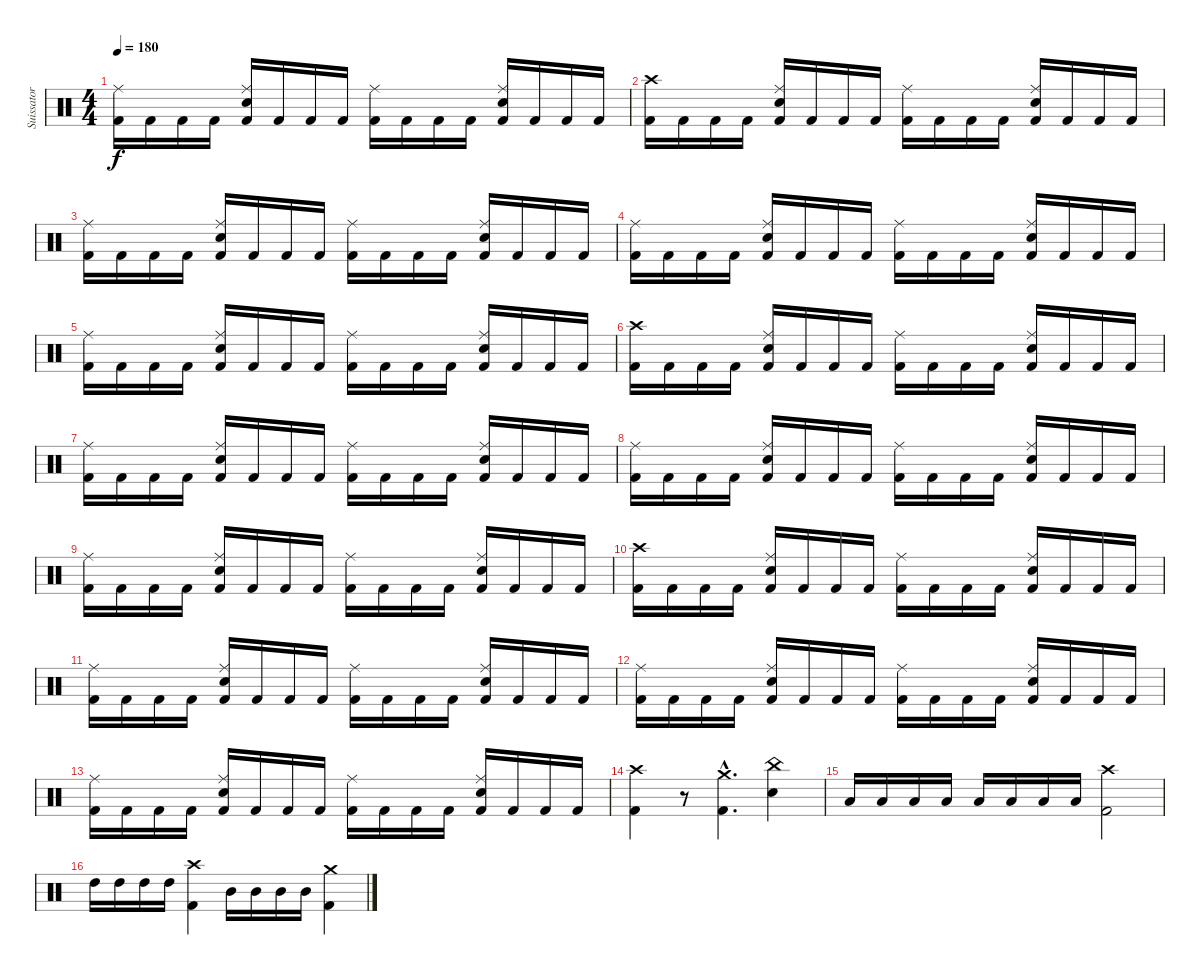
\track ("Suissator" "Suissator") {instrument percussion}
\staff {score}
\articulation defaults
\ts (4 4)
\tempo 180
\clef neutral
\ks c
("Kick (hit) 2" "Ride (middle)").16{dy f} "Kick (hit) 2".16 "Kick (hit) 2".16 "Kick (hit) 2".16 ("Kick (hit) 2" "Electric Snare (hit)" "Ride (middle)").16 "Kick (hit) 2".16 "Kick (hit) 2".16 "Kick (hit) 2".16 ("Kick (hit) 2" "Ride (middle)").16 "Kick (hit) 2".16 "Kick (hit) 2".16 "Kick (hit) 2".16 ("Kick (hit) 2" "Electric Snare (hit)" "Ride (middle)").16 "Kick (hit) 2".16 "Kick (hit) 2".16 "Kick (hit) 2".16 |
("Kick (hit) 2" "Crash high (hit)").16 "Kick (hit) 2".16 "Kick (hit) 2".16 "Kick (hit) 2".16 ("Kick (hit) 2" "Electric Snare (hit)" "Ride (middle)").16 "Kick (hit) 2".16 "Kick (hit) 2".16 "Kick (hit) 2".16 ("Kick (hit) 2" "Ride (middle)").16 "Kick (hit) 2".16 "Kick (hit) 2".16 "Kick (hit) 2".16 ("Kick (hit) 2" "Electric Snare (hit)" "Ride (middle)").16 "Kick (hit) 2".16 "Kick (hit) 2".16 "Kick (hit) 2".16 |
("Kick (hit) 2" "Ride (middle)").16 "Kick (hit) 2".16 "Kick (hit) 2".16 "Kick (hit) 2".16 ("Kick (hit) 2" "Electric Snare (hit)" "Ride (middle)").16 "Kick (hit) 2".16 "Kick (hit) 2".16 "Kick (hit) 2".16 ("Kick (hit) 2" "Ride (middle)").16 "Kick (hit) 2".16 "Kick (hit) 2".16 "Kick (hit) 2".16 ("Kick (hit) 2" "Electric Snare (hit)" "Ride (middle)").16 "Kick (hit) 2".16 "Kick (hit) 2".16 "Kick (hit) 2".16 |
("Kick (hit) 2" "Ride (middle)").16 "Kick (hit) 2".16 "Kick (hit) 2".16 "Kick (hit) 2".16 ("Kick (hit) 2" "Electric Snare (hit)" "Ride (middle)").16 "Kick (hit) 2".16 "Kick (hit) 2".16 "Kick (hit) 2".16 ("Kick (hit) 2" "Ride (middle)").16 "Kick (hit) 2".16 "Kick (hit) 2".16 "Kick (hit) 2".16 ("Kick (hit) 2" "Electric Snare (hit)" "Ride (middle)").16 "Kick (hit) 2".16 "Kick (hit) 2".16 "Kick (hit) 2".16 |
("Kick (hit) 2" "Ride (middle)").16 "Kick (hit) 2".16 "Kick (hit) 2".16 "Kick (hit) 2".16 ("Kick (hit) 2" "Electric Snare (hit)" "Ride (middle)").16 "Kick (hit) 2".16 "Kick (hit) 2".16 "Kick (hit) 2".16 ("Kick (hit) 2" "Ride (middle)").16 "Kick (hit) 2".16 "Kick (hit) 2".16 "Kick (hit) 2".16 ("Kick (hit) 2" "Electric Snare (hit)" "Ride (middle)").16 "Kick (hit) 2".16 "Kick (hit) 2".16 "Kick (hit) 2".16 |
("Kick (hit) 2" "Crash high (hit)").16 "Kick (hit) 2".16 "Kick (hit) 2".16 "Kick (hit) 2".16 ("Kick (hit) 2" "Electric Snare (hit)" "Ride (middle)").16 "Kick (hit) 2".16 "Kick (hit) 2".16 "Kick (hit) 2".16 ("Kick (hit) 2" "Ride (middle)").16 "Kick (hit) 2".16 "Kick (hit) 2".16 "Kick (hit) 2".16 ("Kick (hit) 2" "Electric Snare (hit)" "Ride (middle)").16 "Kick (hit) 2".16 "Kick (hit) 2".16 "Kick (hit) 2".16 |
("Kick (hit) 2" "Ride (middle)").16 "Kick (hit) 2".16 "Kick (hit) 2".16 "Kick (hit) 2".16 ("Kick (hit) 2" "Electric Snare (hit)" "Ride (middle)").16 "Kick (hit) 2".16 "Kick (hit) 2".16 "Kick (hit) 2".16 ("Kick (hit) 2" "Ride (middle)").16 "Kick (hit) 2".16 "Kick (hit) 2".16 "Kick (hit) 2".16 ("Kick (hit) 2" "Electric Snare (hit)" "Ride (middle)").16 "Kick (hit) 2".16 "Kick (hit) 2".16 "Kick (hit) 2".16 |
("Kick (hit) 2" "Ride (middle)").16 "Kick (hit) 2".16 "Kick (hit) 2".16 "Kick (hit) 2".16 ("Kick (hit) 2" "Electric Snare (hit)" "Ride (middle)").16 "Kick (hit) 2".16 "Kick (hit) 2".16 "Kick (hit) 2".16 ("Kick (hit) 2" "Ride (middle)").16 "Kick (hit) 2".16 "Kick (hit) 2".16 "Kick (hit) 2".16 ("Kick (hit) 2" "Electric Snare (hit)" "Ride (middle)").16 "Kick (hit) 2".16 "Kick (hit) 2".16 "Kick (hit) 2".16 |
("Kick (hit) 2" "Ride (middle)").16 "Kick (hit) 2".16 "Kick (hit) 2".16 "Kick (hit) 2".16 ("Kick (hit) 2" "Electric Snare (hit)" "Ride (middle)").16 "Kick (hit) 2".16 "Kick (hit) 2".16 "Kick (hit) 2".16 ("Kick (hit) 2" "Ride (middle)").16 "Kick (hit) 2".16 "Kick (hit) 2".16 "Kick (hit) 2".16 ("Kick (hit) 2" "Electric Snare (hit)" "Ride (middle)").16 "Kick (hit) 2".16 "Kick (hit) 2".16 "Kick (hit) 2".16 |
("Kick (hit) 2" "Crash high (hit)").16 "Kick (hit) 2".16 "Kick (hit) 2".16 "Kick (hit) 2".16 ("Kick (hit) 2" "Electric Snare (hit)" "Ride (middle)").16 "Kick (hit) 2".16 "Kick (hit) 2".16 "Kick (hit) 2".16 ("Kick (hit) 2" "Ride (middle)").16 "Kick (hit) 2".16 "Kick (hit) 2".16 "Kick (hit) 2".16 ("Kick (hit) 2" "Electric Snare (hit)" "Ride (middle)").16 "Kick (hit) 2".16 "Kick (hit) 2".16 "Kick (hit) 2".16 |
("Kick (hit) 2" "Ride (middle)").16 "Kick (hit) 2".16 "Kick (hit) 2".16 "Kick (hit) 2".16 ("Kick (hit) 2" "Electric Snare (hit)" "Ride (middle)").16 "Kick (hit) 2".16 "Kick (hit) 2".16 "Kick (hit) 2".16 ("Kick (hit) 2" "Ride (middle)").16 "Kick (hit) 2".16 "Kick (hit) 2".16 "Kick (hit) 2".16 ("Kick (hit) 2" "Electric Snare (hit)" "Ride (middle)").16 "Kick (hit) 2".16 "Kick (hit) 2".16 "Kick (hit) 2".16 |
("Kick (hit) 2" "Ride (middle)").16 "Kick (hit) 2".16 "Kick (hit) 2".16 "Kick (hit) 2".16 ("Kick (hit) 2" "Electric Snare (hit)" "Ride (middle)").16 "Kick (hit) 2".16 "Kick (hit) 2".16 "Kick (hit) 2".16 ("Kick (hit) 2" "Ride (middle)").16 "Kick (hit) 2".16 "Kick (hit) 2".16 "Kick (hit) 2".16 ("Kick (hit) 2" "Electric Snare (hit)" "Ride (middle)").16 "Kick (hit) 2".16 "Kick (hit) 2".16 "Kick (hit) 2".16 |
("Kick (hit) 2" "Ride (middle)").16 "Kick (hit) 2".16 "Kick (hit) 2".16 "Kick (hit) 2".16 ("Kick (hit) 2" "Electric Snare (hit)" "Ride (middle)").16 "Kick (hit) 2".16 "Kick (hit) 2".16 "Kick (hit) 2".16 ("Kick (hit) 2" "Ride (middle)").16 "Kick (hit) 2".16 "Kick (hit) 2".16 "Kick (hit) 2".16 ("Kick (hit) 2" "Electric Snare (hit)" "Ride (middle)").16 "Kick (hit) 2".16 "Kick (hit) 2".16 "Kick (hit) 2".16 |
("Kick (hit) 2" "Crash high (hit)").4 r.8 ("Kick (hit) 2"{hac} "Crash medium (hit)"{hac}).4{d} ("Electric Snare (hit)" "China (hit)").4 |
"Low Tom (hit)".16 "Low Tom (hit)".16 "Low Tom (hit)".16 "Low Tom (hit)".16 "Low Tom (hit)".16 "Low Tom (hit)".16 "Low Tom (hit)".16 "Low Tom (hit)".16 ("Kick (hit) 2" "Crash high (hit)").2 |
"High Tom (hit)".16 "High Tom (hit)".16 "High Tom (hit)".16 "High Tom (hit)".16 ("Kick (hit) 2" "Crash high (hit)").4 "Mid Tom (hit)".16 "Mid Tom (hit)".16 "Mid Tom (hit)".16 "Mid Tom (hit)".16 ("Kick (hit) 2" "Crash medium (hit)").4
